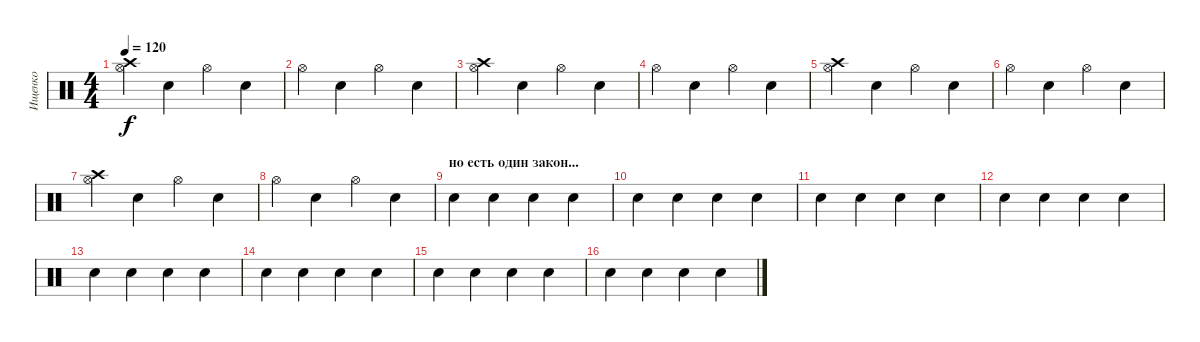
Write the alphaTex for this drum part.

\track ("Ищенко" "Ищенко") {instrument percussion}
\staff {score}
\articulation defaults
\ts (4 4)
\tempo 120
\clef neutral
\ks c
("Hi-Hat (open)" "Crash high (hit)").4{dy f} "Electric Snare (hit)".4 "Hi-Hat (open)".4 "Electric Snare (hit)".4 |
"Hi-Hat (open)".4 "Electric Snare (hit)".4 "Hi-Hat (open)".4 "Electric Snare (hit)".4 |
("Hi-Hat (open)" "Crash high (hit)").4 "Electric Snare (hit)".4 "Hi-Hat (open)".4 "Electric Snare (hit)".4 |
"Hi-Hat (open)".4 "Electric Snare (hit)".4 "Hi-Hat (open)".4 "Electric Snare (hit)".4 |
("Hi-Hat (open)" "Crash high (hit)").4 "Electric Snare (hit)".4 "Hi-Hat (open)".4 "Electric Snare (hit)".4 |
"Hi-Hat (open)".4 "Electric Snare (hit)".4 "Hi-Hat (open)".4 "Electric Snare (hit)".4 |
("Hi-Hat (open)" "Crash high (hit)").4 "Electric Snare (hit)".4 "Hi-Hat (open)".4 "Electric Snare (hit)".4 |
"Hi-Hat (open)".4 "Electric Snare (hit)".4 "Hi-Hat (open)".4 "Electric Snare (hit)".4 |
\section ("" "но есть один закон...")
"Snare (hit) 2".4 "Electric Snare (hit)".4 "Snare (hit) 2".4 "Electric Snare (hit)".4 |
"Snare (hit) 2".4 "Electric Snare (hit)".4 "Snare (hit) 2".4 "Electric Snare (hit)".4 |
"Snare (hit) 2".4 "Electric Snare (hit)".4 "Snare (hit) 2".4 "Electric Snare (hit)".4 |
"Snare (hit) 2".4 "Electric Snare (hit)".4 "Snare (hit) 2".4 "Electric Snare (hit)".4 |
"Snare (hit) 2".4 "Electric Snare (hit)".4 "Snare (hit) 2".4 "Electric Snare (hit)".4 |
"Snare (hit) 2".4 "Electric Snare (hit)".4 "Snare (hit) 2".4 "Electric Snare (hit)".4 |
"Snare (hit) 2".4 "Electric Snare (hit)".4 "Snare (hit) 2".4 "Electric Snare (hit)".4 |
"Snare (hit) 2".4 "Electric Snare (hit)".4 "Snare (hit) 2".4 "Electric Snare (hit)".4
